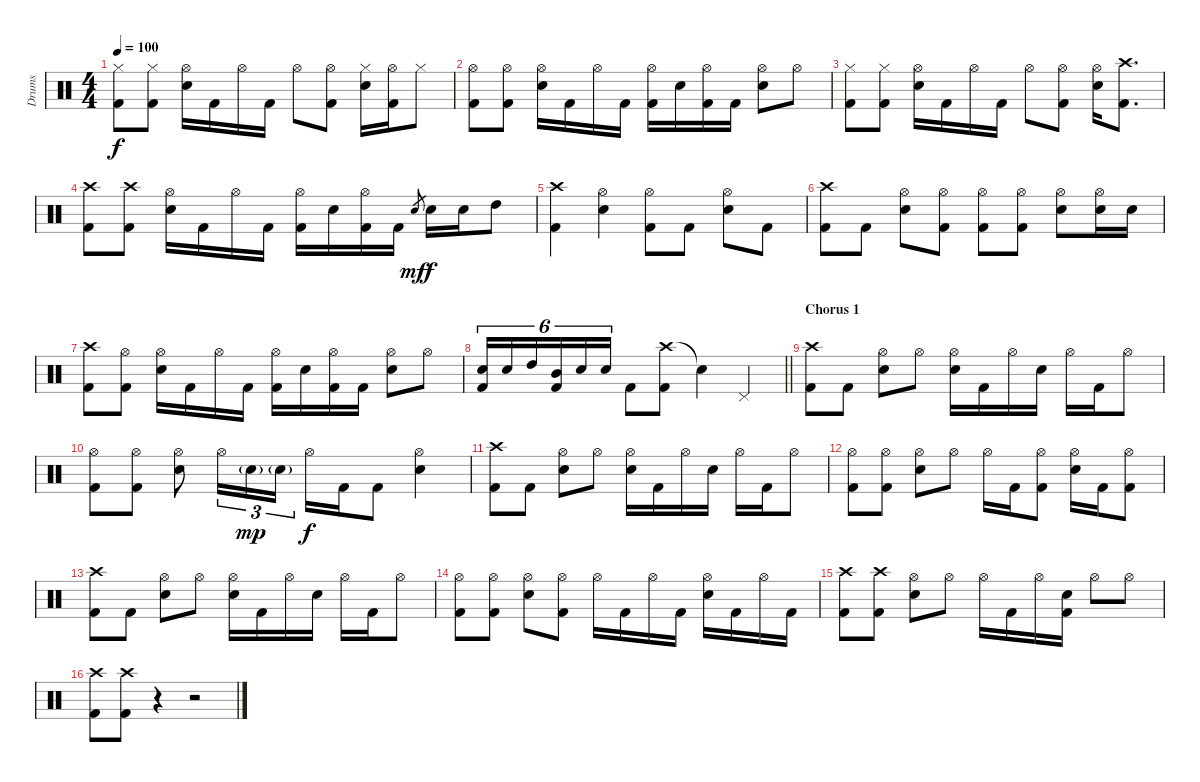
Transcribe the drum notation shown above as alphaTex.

\track ("Drums" "Drums") {instrument percussion}
\staff {score}
\articulation defaults
\ts (4 4)
\tempo 100
\clef neutral
\ks c
("Hi-Hat (closed)" "Kick (hit) 2").8{dy f} ("Hi-Hat (closed)" "Kick (hit) 2").8 ("Hi-Hat (open)" "Electric Snare (hit)").16 "Kick (hit) 2".16 "Hi-Hat (open)".16 "Kick (hit) 2".16 "Hi-Hat (open)".8 ("Hi-Hat (open)" "Kick (hit) 2").8 ("Hi-Hat (closed)" "Electric Snare (hit)").16 ("Hi-Hat (open)" "Kick (hit) 2").16 "Hi-Hat (closed)".8 |
("Hi-Hat (open)" "Kick (hit) 2").8 ("Hi-Hat (open)" "Kick (hit) 2").8 ("Hi-Hat (open)" "Electric Snare (hit)").16 "Kick (hit) 2".16 "Hi-Hat (open)".16 "Kick (hit) 2".16 ("Hi-Hat (open)" "Kick (hit) 2").16 "Electric Snare (hit)".16 ("Hi-Hat (open)" "Kick (hit) 2").16 "Kick (hit) 2".16 ("Hi-Hat (open)" "Electric Snare (hit)").8 "Hi-Hat (open)".8 |
("Hi-Hat (closed)" "Kick (hit) 2").8 ("Hi-Hat (closed)" "Kick (hit) 2").8 ("Hi-Hat (open)" "Electric Snare (hit)").16 "Kick (hit) 2".16 "Hi-Hat (open)".16 "Kick (hit) 2".16 "Hi-Hat (open)".8 ("Hi-Hat (open)" "Kick (hit) 2").8 ("Hi-Hat (open)" "Electric Snare (hit)").16 ("Crash high (hit)" "Kick (hit) 2").8{d} |
("Crash high (hit)" "Kick (hit) 2").8 ("Crash high (hit)" "Kick (hit) 2").8 ("Hi-Hat (open)" "Electric Snare (hit)").16 "Kick (hit) 2".16 "Hi-Hat (open)".16 "Kick (hit) 2".16 ("Hi-Hat (open)" "Kick (hit) 2").16 "Electric Snare (hit)".16 ("Hi-Hat (open)" "Kick (hit) 2").16 "Kick (hit) 2".16 "Electric Snare (hit)".8{gr dy mf} "Electric Snare (hit)".16{dy f} "Electric Snare (hit)".16 "High Tom (hit)".8 |
("Crash high (hit)" "Kick (hit) 2").4 ("Hi-Hat (open)" "Electric Snare (hit)").4 ("Hi-Hat (open)" "Kick (hit) 2").8 "Kick (hit) 2".8 ("Hi-Hat (open)" "Electric Snare (hit)").8 "Kick (hit) 2".8 |
("Crash high (hit)" "Kick (hit) 2").8 "Kick (hit) 2".8 ("Hi-Hat (open)" "Electric Snare (hit)").8 ("Hi-Hat (open)" "Kick (hit) 2").8 ("Hi-Hat (open)" "Kick (hit) 2").8 ("Hi-Hat (open)" "Kick (hit) 2").8 ("Hi-Hat (open)" "Electric Snare (hit)").8 ("Hi-Hat (open)" "Electric Snare (hit)").16 "Electric Snare (hit)".16 |
("Crash high (hit)" "Kick (hit) 2").8 ("Hi-Hat (open)" "Kick (hit) 2").8 ("Hi-Hat (open)" "Electric Snare (hit)").16 "Kick (hit) 2".16 "Hi-Hat (open)".16 "Kick (hit) 2".16 ("Hi-Hat (open)" "Kick (hit) 2").16 "Electric Snare (hit)".16 ("Hi-Hat (open)" "Kick (hit) 2").16 "Kick (hit) 2".16 ("Hi-Hat (open)" "Electric Snare (hit)").8 "Hi-Hat (open)".8 |
\barLineRight lightlight
("Electric Snare (hit)" "Kick (hit) 2").16{tu (6 4)} "Electric Snare (hit)".16{tu (6 4)} "High Tom (hit)".16{tu (6 4)} ("Mid Tom (hit)" "Kick (hit) 2").16{tu (6 4)} "Electric Snare (hit)".16{tu (6 4)} "Electric Snare (hit)".16{tu (6 4)} "Kick (hit) 2".8 ("Crash high (hit)" "Kick (hit) 2").8 "Snare (hit)"{t}.4 "Pedal Hi-Hat (hit)".4 |
\section ("" "Chorus 1")
("Crash high (hit)" "Kick (hit) 2").8 "Kick (hit) 2".8 ("Hi-Hat (open)" "Electric Snare (hit)").8 "Hi-Hat (open)".8 ("Hi-Hat (open)" "Electric Snare (hit)").16 "Kick (hit) 2".16 "Hi-Hat (open)".16 "Electric Snare (hit)".16 "Hi-Hat (open)".16 "Kick (hit) 2".16 "Hi-Hat (open)".8 |
("Hi-Hat (open)" "Kick (hit) 2").8 ("Hi-Hat (open)" "Kick (hit) 2").8 ("Hi-Hat (open)" "Electric Snare (hit)").8 "Hi-Hat (open)".16{tu (3 2)} "Electric Snare (hit)"{g}.16{tu (3 2) dy mp} "Electric Snare (hit)"{g}.16{tu (3 2)} "Hi-Hat (open)".16{dy f} "Kick (hit) 2".16 "Kick (hit) 2".8 ("Hi-Hat (open)" "Electric Snare (hit)").4 |
("Crash high (hit)" "Kick (hit) 2").8 "Kick (hit) 2".8 ("Hi-Hat (open)" "Electric Snare (hit)").8 "Hi-Hat (open)".8 ("Hi-Hat (open)" "Electric Snare (hit)").16 "Kick (hit) 2".16 "Hi-Hat (open)".16 "Electric Snare (hit)".16 "Hi-Hat (open)".16 "Kick (hit) 2".16 "Hi-Hat (open)".8 |
("Hi-Hat (open)" "Kick (hit) 2").8 ("Hi-Hat (open)" "Kick (hit) 2").8 ("Hi-Hat (open)" "Electric Snare (hit)").8 "Hi-Hat (open)".8 "Hi-Hat (open)".16 "Kick (hit) 2".16 ("Hi-Hat (open)" "Kick (hit) 2").8 ("Hi-Hat (open)" "Electric Snare (hit)").16 "Kick (hit) 2".16 ("Hi-Hat (open)" "Kick (hit) 2").8 |
("Crash high (hit)" "Kick (hit) 2").8 "Kick (hit) 2".8 ("Hi-Hat (open)" "Electric Snare (hit)").8 "Hi-Hat (open)".8 ("Hi-Hat (open)" "Electric Snare (hit)").16 "Kick (hit) 2".16 "Hi-Hat (open)".16 "Electric Snare (hit)".16 "Hi-Hat (open)".16 "Kick (hit) 2".16 "Hi-Hat (open)".8 |
("Hi-Hat (open)" "Kick (hit) 2").8 ("Hi-Hat (open)" "Kick (hit) 2").8 ("Hi-Hat (open)" "Electric Snare (hit)").8 ("Hi-Hat (open)" "Kick (hit) 2").8 "Hi-Hat (open)".16 "Kick (hit) 2".16 "Hi-Hat (open)".16 "Kick (hit) 2".16 ("Hi-Hat (open)" "Electric Snare (hit)").16 "Kick (hit) 2".16 "Hi-Hat (open)".16 "Kick (hit) 2".16 |
("Crash high (hit)" "Kick (hit) 2").8 ("Crash high (hit)" "Kick (hit) 2").8 ("Hi-Hat (open)" "Electric Snare (hit)").8 "Hi-Hat (open)".8 "Hi-Hat (open)".16 "Kick (hit) 2".16 "Hi-Hat (open)".16 ("Electric Snare (hit)" "Kick (hit) 2").16 "Hi-Hat (open)".8 "Hi-Hat (open)".8 |
("Crash high (hit)" "Kick (hit) 2").8 ("Crash high (hit)" "Kick (hit) 2").8 r.4 r.2
